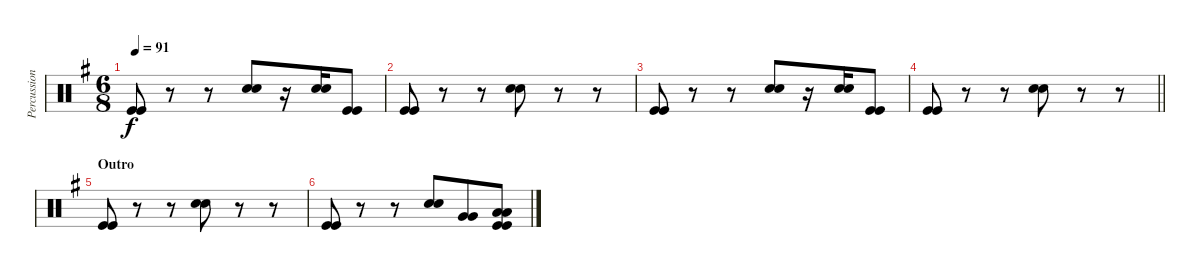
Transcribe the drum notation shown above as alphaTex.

\track ("Percussion (For Volume)" "Percussion") {instrument percussion}
\staff {score}
\articulation defaults
\ts (6 8)
\tempo 91
\clef neutral
\ks eminor
("Kick (hit)" "Kick (hit)").8{dy f} r.8 r.8 ("Electric Snare (hit)" "Electric Snare (hit)").8 r.16 ("Electric Snare (hit)" "Electric Snare (hit)").16 ("Kick (hit)" "Kick (hit)").8 |
("Kick (hit)" "Kick (hit)").8 r.8 r.8 ("Electric Snare (hit)" "Electric Snare (hit)").8 r.8 r.8 |
("Kick (hit)" "Kick (hit)").8 r.8 r.8 ("Electric Snare (hit)" "Electric Snare (hit)").8 r.16 ("Electric Snare (hit)" "Electric Snare (hit)").16 ("Kick (hit)" "Kick (hit)").8 |
\barLineRight lightlight
("Kick (hit)" "Kick (hit)").8 r.8 r.8 ("Electric Snare (hit)" "Electric Snare (hit)").8 r.8 r.8 |
\section ("" "Outro")
("Kick (hit)" "Kick (hit)").8 r.8 r.8 ("Electric Snare (hit)" "Electric Snare (hit)").8 r.8 r.8 |
("Kick (hit)" "Kick (hit)").8 r.8 r.8 ("Electric Snare (hit)" "Electric Snare (hit)").8 ("Very Low Tom (hit)" "Very Low Tom (hit)").8 ("Low Floor Tom (hit)" "Low Floor Tom (hit)" "Kick (hit)" "Kick (hit)").8
